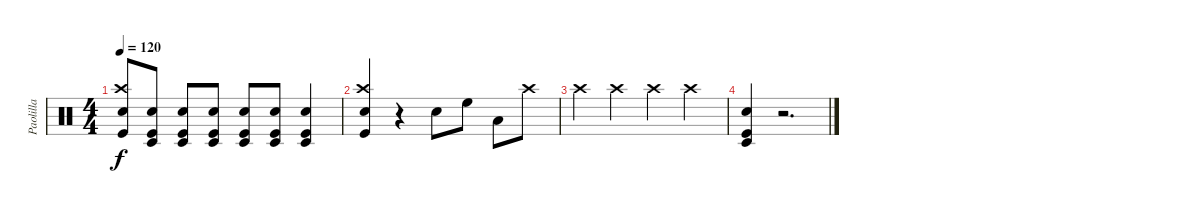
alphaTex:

\track ("Paolilla" "Paolilla") {instrument percussion}
\staff {score}
\articulation defaults
\ts (4 4)
\tempo 120
\clef neutral
\ks c
("Kick (hit)" "Crash high (hit)" "Snare (hit) 2").8{dy f} ("Kick (hit)" "Timbale low (hit)" "Snare (hit) 2").8{volume 4} ("Kick (hit)" "Timbale low (hit)" "Snare (hit) 2").8{volume 5} ("Kick (hit)" "Timbale low (hit)" "Snare (hit) 2").8{volume 7} ("Kick (hit)" "Timbale low (hit)" "Snare (hit) 2").8{volume 9} ("Kick (hit)" "Timbale low (hit)" "Snare (hit) 2").8{volume 11} ("Timbale low (hit)" "Snare (hit) 2" "Kick (hit)").4{volume 16} |
("Kick (hit)" "Crash high (hit)" "Snare (hit) 2").4 r.4 "Snare (hit) 2".8 "High Floor Tom (hit)".8 "Low Tom (hit)".8 "Crash high (hit)".8 |
"Crash high (hit)".4 "Crash high (hit)".4 "Crash high (hit)".4 "Crash high (hit)".4 |
("Snare (hit) 2" "Timbale low (hit)" "Kick (hit)").4 r.2{d}
